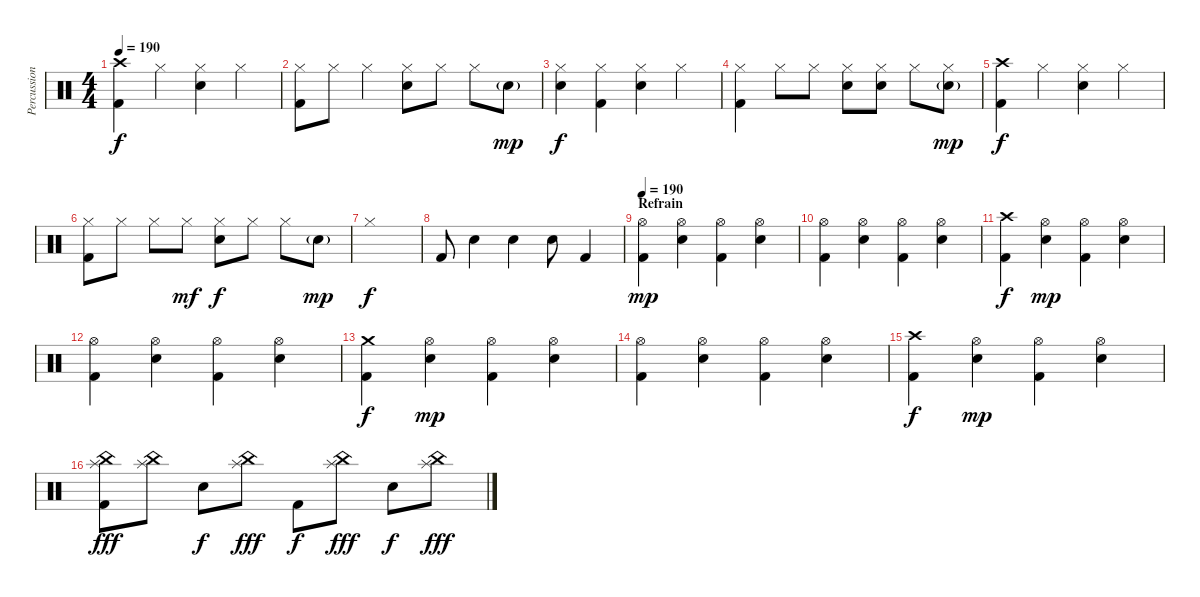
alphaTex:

\track ("Percussion" "Percussion") {instrument percussion}
\staff {score}
\articulation defaults
\ts (4 4)
\tempo 190
\clef neutral
\ks c
("Crash high (hit)" "Kick (hit) 2").4{dy f} "Hi-Hat (closed)".4 ("Hi-Hat (closed)" "Electric Snare (hit)").4 "Hi-Hat (closed)".4 |
("Hi-Hat (closed)" "Kick (hit) 2").8 "Hi-Hat (closed)".8 "Hi-Hat (closed)".4 ("Hi-Hat (closed)" "Electric Snare (hit)").8 "Hi-Hat (closed)".8 "Hi-Hat (closed)".8 "Electric Snare (hit)"{g}.8{dy mp} |
("Hi-Hat (closed)" "Electric Snare (hit)").4{dy f} ("Hi-Hat (closed)" "Kick (hit) 2").4 ("Hi-Hat (closed)" "Electric Snare (hit)").4 "Hi-Hat (closed)".4 |
("Hi-Hat (closed)" "Kick (hit) 2").4 "Hi-Hat (closed)".8 "Hi-Hat (closed)".8 ("Hi-Hat (closed)" "Electric Snare (hit)").8 ("Hi-Hat (closed)" "Electric Snare (hit)").8 "Hi-Hat (closed)".8 ("Hi-Hat (closed)" "Electric Snare (hit)"{g}).8{dy mp} |
("Crash high (hit)" "Kick (hit) 2").4{dy f} "Hi-Hat (closed)".4 ("Hi-Hat (closed)" "Electric Snare (hit)").4 "Hi-Hat (closed)".4 |
("Hi-Hat (closed)" "Kick (hit) 2").8 "Hi-Hat (closed)".8 "Hi-Hat (closed)".8 "Hi-Hat (closed)".8{dy mf} ("Hi-Hat (closed)" "Electric Snare (hit)").8{dy f} "Hi-Hat (closed)".8 "Hi-Hat (closed)".8 "Electric Snare (hit)"{g}.8{dy mp} |
"Hi-Hat (closed)".1{dy f} |
"Kick (hit) 2".8 "Electric Snare (hit)".4 "Electric Snare (hit)".4 "Electric Snare (hit)".8 "Kick (hit) 2".4 |
\section ("" "Refrain")
\tempo 190
("Hi-Hat (open)" "Kick (hit) 2").4{dy mp} ("Hi-Hat (open)" "Electric Snare (hit)").4 ("Hi-Hat (open)" "Kick (hit) 2").4 ("Hi-Hat (open)" "Electric Snare (hit)").4 |
("Hi-Hat (open)" "Kick (hit) 2").4 ("Hi-Hat (open)" "Electric Snare (hit)").4 ("Hi-Hat (open)" "Kick (hit) 2").4 ("Hi-Hat (open)" "Electric Snare (hit)").4 |
("Crash high (hit)" "Kick (hit) 2").4{dy f} ("Hi-Hat (open)" "Electric Snare (hit)").4{dy mp} ("Hi-Hat (open)" "Kick (hit) 2").4 ("Hi-Hat (open)" "Electric Snare (hit)").4 |
("Hi-Hat (open)" "Kick (hit) 2").4 ("Hi-Hat (open)" "Electric Snare (hit)").4 ("Hi-Hat (open)" "Kick (hit) 2").4 ("Hi-Hat (open)" "Electric Snare (hit)").4 |
("Crash medium (hit)" "Kick (hit) 2").4{dy f} ("Hi-Hat (open)" "Electric Snare (hit)").4{dy mp} ("Hi-Hat (open)" "Kick (hit) 2").4 ("Hi-Hat (open)" "Electric Snare (hit)").4 |
("Hi-Hat (open)" "Kick (hit) 2").4 ("Hi-Hat (open)" "Electric Snare (hit)").4 ("Hi-Hat (open)" "Kick (hit) 2").4 ("Hi-Hat (open)" "Electric Snare (hit)").4 |
("Crash high (hit)" "Kick (hit) 2").4{dy f} ("Hi-Hat (open)" "Electric Snare (hit)").4{dy mp} ("Hi-Hat (open)" "Kick (hit) 2").4 ("Hi-Hat (open)" "Electric Snare (hit)").4 |
("China (hit)" "Splash (hit)" "Kick (hit) 2").8{dy fff} ("China (hit)" "Splash (hit)").8 "Electric Snare (hit)".8{dy f} ("China (hit)" "Splash (hit)").8{dy fff} "Kick (hit) 2".8{dy f} ("China (hit)" "Splash (hit)").8{dy fff} "Electric Snare (hit)".8{dy f} ("China (hit)" "Splash (hit)").8{dy fff}
